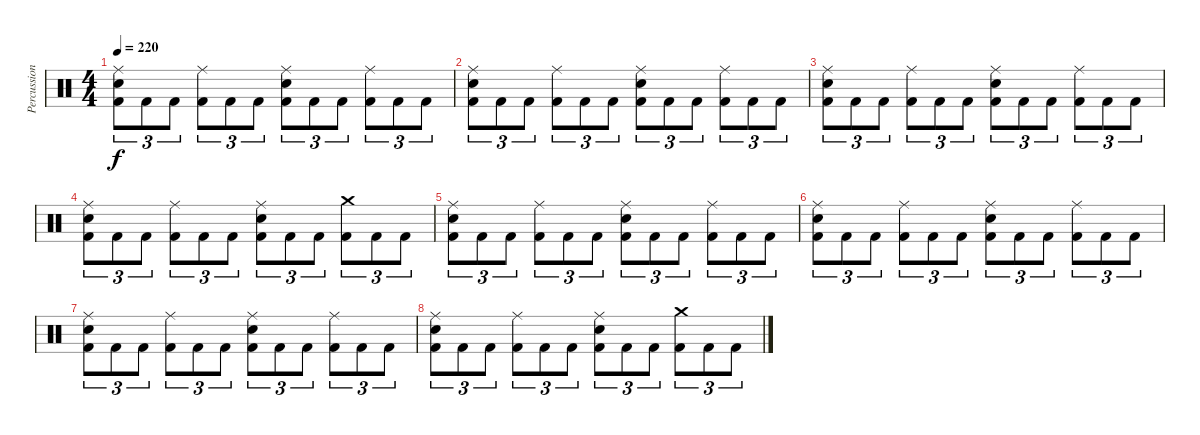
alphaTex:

\track ("Percussion" "Percussion") {instrument percussion}
\staff {score}
\articulation defaults
\ts (4 4)
\tempo 220
\clef neutral
\ks c
("Kick (hit) 2" "Snare (hit) 2" "Ride (middle)").8{tu (3 2) dy f} "Kick (hit) 2".8{tu (3 2)} "Kick (hit) 2".8{tu (3 2)} ("Kick (hit) 2" "Ride (middle)").8{tu (3 2)} "Kick (hit) 2".8{tu (3 2)} "Kick (hit) 2".8{tu (3 2)} ("Kick (hit) 2" "Snare (hit) 2" "Ride (middle)").8{tu (3 2)} "Kick (hit) 2".8{tu (3 2)} "Kick (hit) 2".8{tu (3 2)} ("Kick (hit) 2" "Ride (middle)").8{tu (3 2)} "Kick (hit) 2".8{tu (3 2)} "Kick (hit) 2".8{tu (3 2)} |
("Kick (hit) 2" "Snare (hit) 2" "Ride (middle)").8{tu (3 2)} "Kick (hit) 2".8{tu (3 2)} "Kick (hit) 2".8{tu (3 2)} ("Kick (hit) 2" "Ride (middle)").8{tu (3 2)} "Kick (hit) 2".8{tu (3 2)} "Kick (hit) 2".8{tu (3 2)} ("Kick (hit) 2" "Snare (hit) 2" "Ride (middle)").8{tu (3 2)} "Kick (hit) 2".8{tu (3 2)} "Kick (hit) 2".8{tu (3 2)} ("Kick (hit) 2" "Ride (middle)").8{tu (3 2)} "Kick (hit) 2".8{tu (3 2)} "Kick (hit) 2".8{tu (3 2)} |
("Kick (hit) 2" "Snare (hit) 2" "Ride (middle)").8{tu (3 2)} "Kick (hit) 2".8{tu (3 2)} "Kick (hit) 2".8{tu (3 2)} ("Kick (hit) 2" "Ride (middle)").8{tu (3 2)} "Kick (hit) 2".8{tu (3 2)} "Kick (hit) 2".8{tu (3 2)} ("Kick (hit) 2" "Snare (hit) 2" "Ride (middle)").8{tu (3 2)} "Kick (hit) 2".8{tu (3 2)} "Kick (hit) 2".8{tu (3 2)} ("Kick (hit) 2" "Ride (middle)").8{tu (3 2)} "Kick (hit) 2".8{tu (3 2)} "Kick (hit) 2".8{tu (3 2)} |
("Kick (hit) 2" "Snare (hit) 2" "Ride (middle)").8{tu (3 2)} "Kick (hit) 2".8{tu (3 2)} "Kick (hit) 2".8{tu (3 2)} ("Kick (hit) 2" "Ride (middle)").8{tu (3 2)} "Kick (hit) 2".8{tu (3 2)} "Kick (hit) 2".8{tu (3 2)} ("Kick (hit) 2" "Snare (hit) 2" "Ride (middle)").8{tu (3 2)} "Kick (hit) 2".8{tu (3 2)} "Kick (hit) 2".8{tu (3 2)} ("Kick (hit) 2" "Crash medium (hit)").8{tu (3 2)} "Kick (hit) 2".8{tu (3 2)} "Kick (hit) 2".8{tu (3 2)} |
("Kick (hit) 2" "Snare (hit) 2" "Ride (middle)").8{tu (3 2)} "Kick (hit) 2".8{tu (3 2)} "Kick (hit) 2".8{tu (3 2)} ("Kick (hit) 2" "Ride (middle)").8{tu (3 2)} "Kick (hit) 2".8{tu (3 2)} "Kick (hit) 2".8{tu (3 2)} ("Kick (hit) 2" "Snare (hit) 2" "Ride (middle)").8{tu (3 2)} "Kick (hit) 2".8{tu (3 2)} "Kick (hit) 2".8{tu (3 2)} ("Kick (hit) 2" "Ride (middle)").8{tu (3 2)} "Kick (hit) 2".8{tu (3 2)} "Kick (hit) 2".8{tu (3 2)} |
("Kick (hit) 2" "Snare (hit) 2" "Ride (middle)").8{tu (3 2)} "Kick (hit) 2".8{tu (3 2)} "Kick (hit) 2".8{tu (3 2)} ("Kick (hit) 2" "Ride (middle)").8{tu (3 2)} "Kick (hit) 2".8{tu (3 2)} "Kick (hit) 2".8{tu (3 2)} ("Kick (hit) 2" "Snare (hit) 2" "Ride (middle)").8{tu (3 2)} "Kick (hit) 2".8{tu (3 2)} "Kick (hit) 2".8{tu (3 2)} ("Kick (hit) 2" "Ride (middle)").8{tu (3 2)} "Kick (hit) 2".8{tu (3 2)} "Kick (hit) 2".8{tu (3 2)} |
("Kick (hit) 2" "Snare (hit) 2" "Ride (middle)").8{tu (3 2)} "Kick (hit) 2".8{tu (3 2)} "Kick (hit) 2".8{tu (3 2)} ("Kick (hit) 2" "Ride (middle)").8{tu (3 2)} "Kick (hit) 2".8{tu (3 2)} "Kick (hit) 2".8{tu (3 2)} ("Kick (hit) 2" "Snare (hit) 2" "Ride (middle)").8{tu (3 2)} "Kick (hit) 2".8{tu (3 2)} "Kick (hit) 2".8{tu (3 2)} ("Kick (hit) 2" "Ride (middle)").8{tu (3 2)} "Kick (hit) 2".8{tu (3 2)} "Kick (hit) 2".8{tu (3 2)} |
("Kick (hit) 2" "Snare (hit) 2" "Ride (middle)").8{tu (3 2)} "Kick (hit) 2".8{tu (3 2)} "Kick (hit) 2".8{tu (3 2)} ("Kick (hit) 2" "Ride (middle)").8{tu (3 2)} "Kick (hit) 2".8{tu (3 2)} "Kick (hit) 2".8{tu (3 2)} ("Kick (hit) 2" "Snare (hit) 2" "Ride (middle)").8{tu (3 2)} "Kick (hit) 2".8{tu (3 2)} "Kick (hit) 2".8{tu (3 2)} ("Kick (hit) 2" "Crash medium (hit)").8{tu (3 2)} "Kick (hit) 2".8{tu (3 2)} "Kick (hit) 2".8{tu (3 2)}
